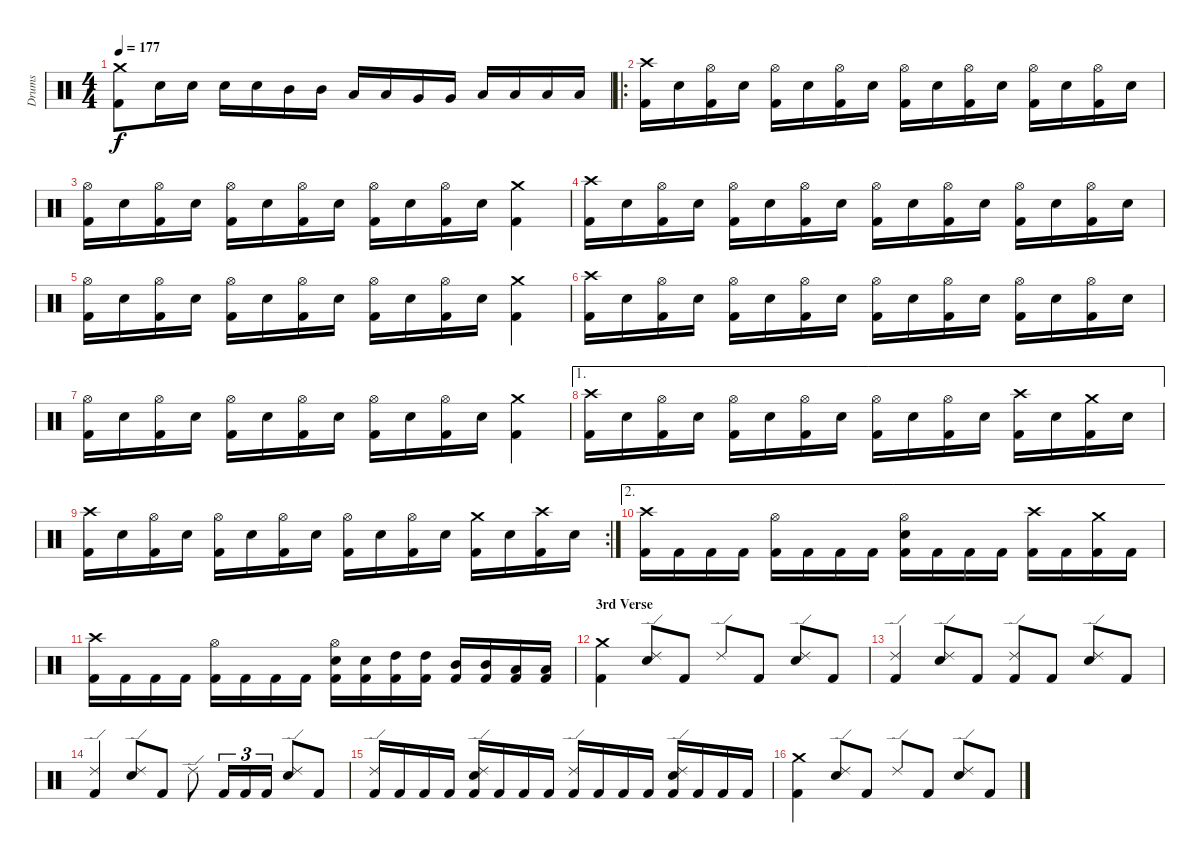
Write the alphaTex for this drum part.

\track ("Drums" "Drums") {instrument percussion}
\staff {score}
\articulation defaults
\ts (4 4)
\tempo 177
\clef neutral
\ks c
("Kick (hit) 2" "Crash medium (hit)").8{dy f} "Electric Snare (hit)".16 "Electric Snare (hit)".16 "Electric Snare (hit)".16 "Electric Snare (hit)".16 "Mid Tom (hit)".16 "Mid Tom (hit)".16 "Low Tom (hit)".16 "Low Tom (hit)".16 "Very Low Tom (hit)".16 "Very Low Tom (hit)".16 "Low Floor Tom (hit)".16 "Low Floor Tom (hit)".16 "Low Floor Tom (hit)".16 "Low Floor Tom (hit)".16 |
\ro
("Kick (hit) 2" "Crash high (hit)").16 "Electric Snare (hit)".16 ("Kick (hit) 2" "Hi-Hat (open)").16 "Electric Snare (hit)".16 ("Kick (hit) 2" "Hi-Hat (open)").16 "Electric Snare (hit)".16 ("Kick (hit) 2" "Hi-Hat (open)").16 "Electric Snare (hit)".16 ("Kick (hit) 2" "Hi-Hat (open)").16 "Electric Snare (hit)".16 ("Kick (hit) 2" "Hi-Hat (open)").16 "Electric Snare (hit)".16 ("Kick (hit) 2" "Hi-Hat (open)").16 "Electric Snare (hit)".16 ("Kick (hit) 2" "Hi-Hat (open)").16 "Electric Snare (hit)".16 |
("Kick (hit) 2" "Hi-Hat (open)").16 "Electric Snare (hit)".16 ("Kick (hit) 2" "Hi-Hat (open)").16 "Electric Snare (hit)".16 ("Kick (hit) 2" "Hi-Hat (open)").16 "Electric Snare (hit)".16 ("Kick (hit) 2" "Hi-Hat (open)").16 "Electric Snare (hit)".16 ("Kick (hit) 2" "Hi-Hat (open)").16 "Electric Snare (hit)".16 ("Kick (hit) 2" "Hi-Hat (open)").16 "Electric Snare (hit)".16 ("Kick (hit) 2" "Crash medium (hit)").4 |
("Kick (hit) 2" "Crash high (hit)").16 "Electric Snare (hit)".16 ("Kick (hit) 2" "Hi-Hat (open)").16 "Electric Snare (hit)".16 ("Kick (hit) 2" "Hi-Hat (open)").16 "Electric Snare (hit)".16 ("Kick (hit) 2" "Hi-Hat (open)").16 "Electric Snare (hit)".16 ("Kick (hit) 2" "Hi-Hat (open)").16 "Electric Snare (hit)".16 ("Kick (hit) 2" "Hi-Hat (open)").16 "Electric Snare (hit)".16 ("Kick (hit) 2" "Hi-Hat (open)").16 "Electric Snare (hit)".16 ("Kick (hit) 2" "Hi-Hat (open)").16 "Electric Snare (hit)".16 |
("Kick (hit) 2" "Hi-Hat (open)").16 "Electric Snare (hit)".16 ("Kick (hit) 2" "Hi-Hat (open)").16 "Electric Snare (hit)".16 ("Kick (hit) 2" "Hi-Hat (open)").16 "Electric Snare (hit)".16 ("Kick (hit) 2" "Hi-Hat (open)").16 "Electric Snare (hit)".16 ("Kick (hit) 2" "Hi-Hat (open)").16 "Electric Snare (hit)".16 ("Kick (hit) 2" "Hi-Hat (open)").16 "Electric Snare (hit)".16 ("Kick (hit) 2" "Crash medium (hit)").4 |
("Kick (hit) 2" "Crash high (hit)").16 "Electric Snare (hit)".16 ("Kick (hit) 2" "Hi-Hat (open)").16 "Electric Snare (hit)".16 ("Kick (hit) 2" "Hi-Hat (open)").16 "Electric Snare (hit)".16 ("Kick (hit) 2" "Hi-Hat (open)").16 "Electric Snare (hit)".16 ("Kick (hit) 2" "Hi-Hat (open)").16 "Electric Snare (hit)".16 ("Kick (hit) 2" "Hi-Hat (open)").16 "Electric Snare (hit)".16 ("Kick (hit) 2" "Hi-Hat (open)").16 "Electric Snare (hit)".16 ("Kick (hit) 2" "Hi-Hat (open)").16 "Electric Snare (hit)".16 |
("Kick (hit) 2" "Hi-Hat (open)").16 "Electric Snare (hit)".16 ("Kick (hit) 2" "Hi-Hat (open)").16 "Electric Snare (hit)".16 ("Kick (hit) 2" "Hi-Hat (open)").16 "Electric Snare (hit)".16 ("Kick (hit) 2" "Hi-Hat (open)").16 "Electric Snare (hit)".16 ("Kick (hit) 2" "Hi-Hat (open)").16 "Electric Snare (hit)".16 ("Kick (hit) 2" "Hi-Hat (open)").16 "Electric Snare (hit)".16 ("Kick (hit) 2" "Crash medium (hit)").4 |
\ae 1
("Kick (hit) 2" "Crash high (hit)").16 "Electric Snare (hit)".16 ("Kick (hit) 2" "Hi-Hat (open)").16 "Electric Snare (hit)".16 ("Kick (hit) 2" "Hi-Hat (open)").16 "Electric Snare (hit)".16 ("Kick (hit) 2" "Hi-Hat (open)").16 "Electric Snare (hit)".16 ("Kick (hit) 2" "Hi-Hat (open)").16 "Electric Snare (hit)".16 ("Kick (hit) 2" "Hi-Hat (open)").16 "Electric Snare (hit)".16 ("Kick (hit) 2" "Crash high (hit)").16 "Electric Snare (hit)".16 ("Kick (hit) 2" "Crash medium (hit)").16 "Electric Snare (hit)".16 |
\rc 2
("Kick (hit) 2" "Crash high (hit)").16 "Electric Snare (hit)".16 ("Kick (hit) 2" "Hi-Hat (open)").16 "Electric Snare (hit)".16 ("Kick (hit) 2" "Hi-Hat (open)").16 "Electric Snare (hit)".16 ("Kick (hit) 2" "Hi-Hat (open)").16 "Electric Snare (hit)".16 ("Kick (hit) 2" "Hi-Hat (open)").16 "Electric Snare (hit)".16 ("Kick (hit) 2" "Hi-Hat (open)").16 "Electric Snare (hit)".16 ("Kick (hit) 2" "Crash medium (hit)").16 "Electric Snare (hit)".16 ("Kick (hit) 2" "Crash high (hit)").16 "Electric Snare (hit)".16 |
\ae 2
("Kick (hit) 2" "Crash high (hit)").16 "Kick (hit) 2".16 "Kick (hit) 2".16 "Kick (hit) 2".16 ("Kick (hit) 2" "Hi-Hat (open)").16 "Kick (hit) 2".16 "Kick (hit) 2".16 "Kick (hit) 2".16 ("Kick (hit) 2" "Electric Snare (hit)" "Hi-Hat (open)").16 "Kick (hit) 2".16 "Kick (hit) 2".16 "Kick (hit) 2".16 ("Kick (hit) 2" "Crash high (hit)").16 "Kick (hit) 2".16 ("Kick (hit) 2" "Crash medium (hit)").16 "Kick (hit) 2".16 |
("Kick (hit) 2" "Crash high (hit)").16 "Kick (hit) 2".16 "Kick (hit) 2".16 "Kick (hit) 2".16 ("Kick (hit) 2" "Hi-Hat (open)").16 "Kick (hit) 2".16 "Kick (hit) 2".16 "Kick (hit) 2".16 ("Kick (hit) 2" "Electric Snare (hit)" "Hi-Hat (open)").16 ("Kick (hit) 2" "Electric Snare (hit)").16 ("Kick (hit) 2" "High Tom (hit)").16 ("Kick (hit) 2" "High Tom (hit)").16 ("Kick (hit) 2" "Mid Tom (hit)").16 ("Kick (hit) 2" "Mid Tom (hit)").16 ("Kick (hit) 2" "Low Tom (hit)").16 ("Kick (hit) 2" "Low Tom (hit)").16 |
\section ("" "3rd Verse")
("Kick (hit) 2" "Crash medium (hit)").4 ("Electric Snare (hit)" "Ride (edge) 2").8 "Kick (hit) 2".8 "Ride (edge) 2".8 "Kick (hit) 2".8 ("Electric Snare (hit)" "Ride (edge) 2").8 "Kick (hit) 2".8 |
("Kick (hit) 2" "Ride (edge) 2").4 ("Electric Snare (hit)" "Ride (edge) 2").8 "Kick (hit) 2".8 ("Kick (hit) 2" "Ride (edge) 2").8 "Kick (hit) 2".8 ("Electric Snare (hit)" "Ride (edge) 2").8 "Kick (hit) 2".8 |
("Kick (hit) 2" "Ride (edge) 2").4 ("Electric Snare (hit)" "Ride (edge) 2").8 "Kick (hit) 2".8 "Ride (edge) 2".8 "Kick (hit) 2".16{tu (3 2)} "Kick (hit) 2".16{tu (3 2)} "Kick (hit) 2".16{tu (3 2)} ("Electric Snare (hit)" "Ride (edge) 2").8 "Kick (hit) 2".8 |
("Kick (hit) 2" "Ride (edge) 2").16 "Kick (hit) 2".16 "Kick (hit) 2".16 "Kick (hit) 2".16 ("Kick (hit) 2" "Electric Snare (hit)" "Ride (edge) 2").16 "Kick (hit) 2".16 "Kick (hit) 2".16 "Kick (hit) 2".16 ("Kick (hit) 2" "Ride (edge) 2").16 "Kick (hit) 2".16 "Kick (hit) 2".16 "Kick (hit) 2".16 ("Kick (hit) 2" "Electric Snare (hit)" "Ride (edge) 2").16 "Kick (hit) 2".16 "Kick (hit) 2".16 "Kick (hit) 2".16 |
("Kick (hit) 2" "Crash medium (hit)").4 ("Electric Snare (hit)" "Ride (edge) 2").8 "Kick (hit) 2".8 "Ride (edge) 2".8 "Kick (hit) 2".8 ("Electric Snare (hit)" "Ride (edge) 2").8 "Kick (hit) 2".8
